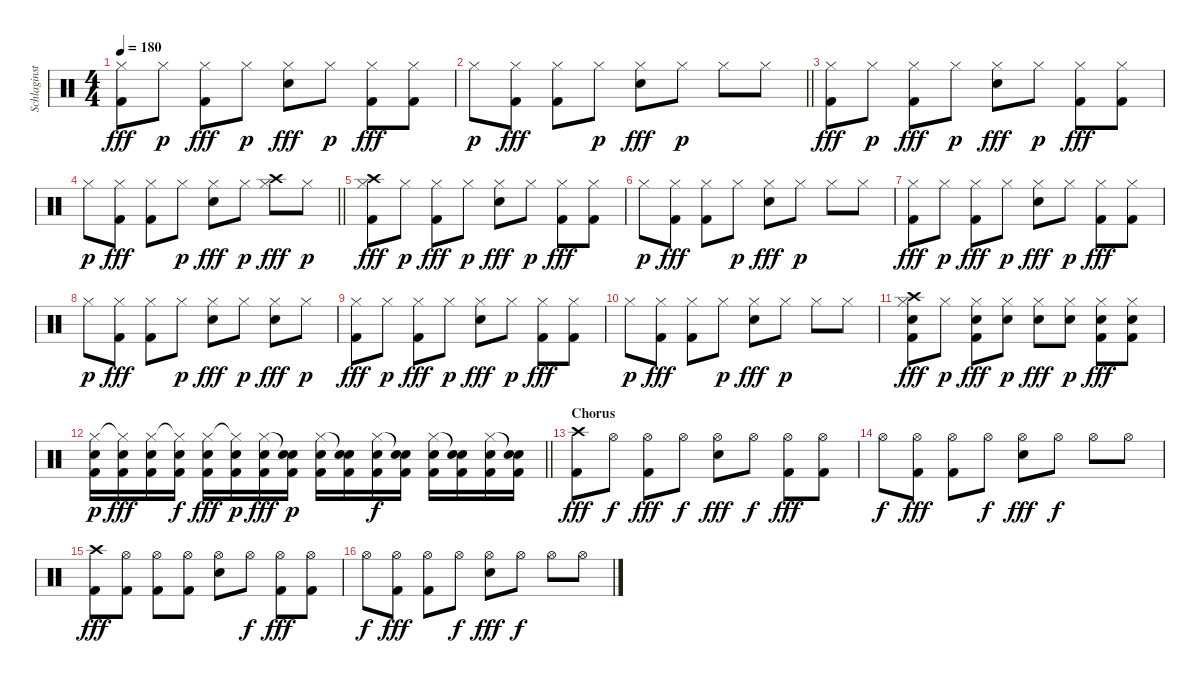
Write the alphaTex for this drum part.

\track ("Schlaginstrumente - Auswahl" "Schlaginst") {instrument percussion}
\staff {score}
\articulation defaults
\ts (4 4)
\tempo 180
\clef neutral
\ks c
("Hi-Hat (closed)" "Kick (hit) 2").8{dy fff} "Hi-Hat (closed)".8{dy p} ("Hi-Hat (closed)" "Kick (hit) 2").8{dy fff} "Hi-Hat (closed)".8{dy p} ("Hi-Hat (closed)" "Snare (hit) 2").8{dy fff} "Hi-Hat (closed)".8{dy p} ("Hi-Hat (closed)" "Kick (hit) 2").8{dy fff} ("Hi-Hat (closed)" "Kick (hit) 2").8 |
\barLineRight lightlight "Hi-Hat (closed)".8{dy p}
("Hi-Hat (closed)" "Kick (hit) 2").8{dy fff} ("Hi-Hat (closed)" "Kick (hit) 2").8 "Hi-Hat (closed)".8{dy p} ("Hi-Hat (closed)" "Snare (hit) 2").8{dy fff} "Hi-Hat (closed)".8{dy p} "Hi-Hat (closed)".8 "Hi-Hat (closed)".8 |
("Hi-Hat (closed)" "Kick (hit) 2").8{dy fff} "Hi-Hat (closed)".8{dy p} ("Hi-Hat (closed)" "Kick (hit) 2").8{dy fff} "Hi-Hat (closed)".8{dy p} ("Hi-Hat (closed)" "Snare (hit) 2").8{dy fff} "Hi-Hat (closed)".8{dy p} ("Hi-Hat (closed)" "Kick (hit) 2").8{dy fff} ("Hi-Hat (closed)" "Kick (hit) 2").8 |
\barLineRight lightlight "Hi-Hat (closed)".8{dy p}
("Hi-Hat (closed)" "Kick (hit) 2").8{dy fff} ("Hi-Hat (closed)" "Kick (hit) 2").8 "Hi-Hat (closed)".8{dy p} ("Hi-Hat (closed)" "Snare (hit) 2").8{dy fff} "Hi-Hat (closed)".8{dy p} ("Hi-Hat (closed)" "Crash high (hit)").8{dy fff} "Hi-Hat (closed)".8{dy p} |
("Hi-Hat (closed)" "Crash high (hit)" "Kick (hit) 2").8{dy fff} "Hi-Hat (closed)".8{dy p} ("Hi-Hat (closed)" "Kick (hit) 2").8{dy fff} "Hi-Hat (closed)".8{dy p} ("Hi-Hat (closed)" "Snare (hit) 2").8{dy fff} "Hi-Hat (closed)".8{dy p} ("Hi-Hat (closed)" "Kick (hit) 2").8{dy fff} ("Hi-Hat (closed)" "Kick (hit) 2").8 |
"Hi-Hat (closed)".8{dy p} ("Hi-Hat (closed)" "Kick (hit) 2").8{dy fff} ("Hi-Hat (closed)" "Kick (hit) 2").8 "Hi-Hat (closed)".8{dy p} ("Hi-Hat (closed)" "Snare (hit) 2").8{dy fff} "Hi-Hat (closed)".8{dy p} "Hi-Hat (closed)".8 "Hi-Hat (closed)".8 |
("Hi-Hat (closed)" "Kick (hit) 2").8{dy fff} "Hi-Hat (closed)".8{dy p} ("Hi-Hat (closed)" "Kick (hit) 2").8{dy fff} "Hi-Hat (closed)".8{dy p} ("Hi-Hat (closed)" "Snare (hit) 2").8{dy fff} "Hi-Hat (closed)".8{dy p} ("Hi-Hat (closed)" "Kick (hit) 2").8{dy fff} ("Hi-Hat (closed)" "Kick (hit) 2").8 |
"Hi-Hat (closed)".8{dy p} ("Hi-Hat (closed)" "Kick (hit) 2").8{dy fff} ("Hi-Hat (closed)" "Kick (hit) 2").8 "Hi-Hat (closed)".8{dy p} ("Hi-Hat (closed)" "Snare (hit) 2").8{dy fff} "Hi-Hat (closed)".8{dy p} ("Hi-Hat (closed)" "Snare (hit) 2").8{dy fff} "Hi-Hat (closed)".8{dy p} |
("Hi-Hat (closed)" "Kick (hit) 2").8{dy fff} "Hi-Hat (closed)".8{dy p} ("Hi-Hat (closed)" "Kick (hit) 2").8{dy fff} "Hi-Hat (closed)".8{dy p} ("Hi-Hat (closed)" "Snare (hit) 2").8{dy fff} "Hi-Hat (closed)".8{dy p} ("Hi-Hat (closed)" "Kick (hit) 2").8{dy fff} ("Hi-Hat (closed)" "Kick (hit) 2").8 |
"Hi-Hat (closed)".8{dy p} ("Hi-Hat (closed)" "Kick (hit) 2").8{dy fff} ("Hi-Hat (closed)" "Kick (hit) 2").8 "Hi-Hat (closed)".8{dy p} ("Hi-Hat (closed)" "Snare (hit) 2").8{dy fff} "Hi-Hat (closed)".8{dy p} "Hi-Hat (closed)".8 "Hi-Hat (closed)".8 |
("Hi-Hat (closed)" "Crash high (hit)" "Snare (hit) 2" "Kick (hit) 2").8{dy fff} "Hi-Hat (closed)".8{dy p} ("Hi-Hat (closed)" "Snare (hit) 2" "Kick (hit) 2").8{dy fff} ("Hi-Hat (closed)" "Snare (hit) 2").8{dy p} ("Hi-Hat (closed)" "Snare (hit) 2").8{dy fff} ("Hi-Hat (closed)" "Snare (hit) 2").8{dy p} ("Hi-Hat (closed)" "Snare (hit) 2" "Kick (hit) 2").8{dy fff} ("Hi-Hat (closed)" "Snare (hit) 2" "Kick (hit) 2").8 |
\barLineRight lightlight
("Hi-Hat (closed)" "Snare (hit) 2" "Kick (hit) 2").16{dy p} ("Hi-Hat (closed)"{t} "Snare (hit) 2" "Kick (hit) 2").16{dy fff} ("Hi-Hat (closed)" "Snare (hit) 2" "Kick (hit) 2").16 ("Hi-Hat (closed)"{t} "Snare (hit) 2" "Kick (hit) 2").16{dy f} ("Hi-Hat (closed)" "Snare (hit) 2" "Kick (hit) 2").16{dy fff} ("Hi-Hat (closed)"{t} "Snare (hit) 2" "Kick (hit) 2").16{dy p} ("Hi-Hat (closed)" "Snare (hit) 2" "Kick (hit) 2").16{dy fff} ("Snare (hit)"{t} "Snare (hit) 2" "Kick (hit) 2").16{dy p} ("Hi-Hat (closed)" "Snare (hit) 2" "Kick (hit) 2").16 ("Snare (hit)"{t} "Snare (hit) 2" "Kick (hit) 2").16 ("Hi-Hat (closed)" "Snare (hit) 2" "Kick (hit) 2").16{dy f} ("Snare (hit)"{t} "Snare (hit) 2" "Kick (hit) 2").16 ("Hi-Hat (closed)" "Snare (hit) 2" "Kick (hit) 2").16 ("Snare (hit)"{t} "Snare (hit) 2" "Kick (hit) 2").16 ("Hi-Hat (closed)" "Snare (hit) 2" "Kick (hit) 2").16 ("Snare (hit)"{t} "Snare (hit) 2" "Kick (hit) 2").16 |
\section ("" "Chorus")
("Crash high (hit)" "Kick (hit) 2").8{dy fff} "Hi-Hat (open)".8{dy f} ("Hi-Hat (open)" "Kick (hit) 2").8{dy fff} "Hi-Hat (open)".8{dy f} ("Hi-Hat (open)" "Snare (hit) 2").8{dy fff} "Hi-Hat (open)".8{dy f} ("Hi-Hat (open)" "Kick (hit) 2").8{dy fff} ("Hi-Hat (open)" "Kick (hit) 2").8 |
"Hi-Hat (open)".8{dy f} ("Hi-Hat (open)" "Kick (hit) 2").8{dy fff} ("Hi-Hat (open)" "Kick (hit) 2").8 "Hi-Hat (open)".8{dy f} ("Hi-Hat (open)" "Snare (hit) 2").8{dy fff} "Hi-Hat (open)".8{dy f} "Hi-Hat (open)".8 "Hi-Hat (open)".8 |
("Crash high (hit)" "Kick (hit) 2").8{dy fff} ("Hi-Hat (open)" "Kick (hit) 2").8 ("Hi-Hat (open)" "Kick (hit) 2").8 ("Hi-Hat (open)" "Kick (hit) 2").8 ("Hi-Hat (open)" "Snare (hit) 2").8 "Hi-Hat (open)".8{dy f} ("Hi-Hat (open)" "Kick (hit) 2").8{dy fff} ("Hi-Hat (open)" "Kick (hit) 2").8 |
"Hi-Hat (open)".8{dy f} ("Hi-Hat (open)" "Kick (hit) 2").8{dy fff} ("Hi-Hat (open)" "Kick (hit) 2").8 "Hi-Hat (open)".8{dy f} ("Hi-Hat (open)" "Snare (hit) 2").8{dy fff} "Hi-Hat (open)".8{dy f} "Hi-Hat (open)".8 "Hi-Hat (open)".8
